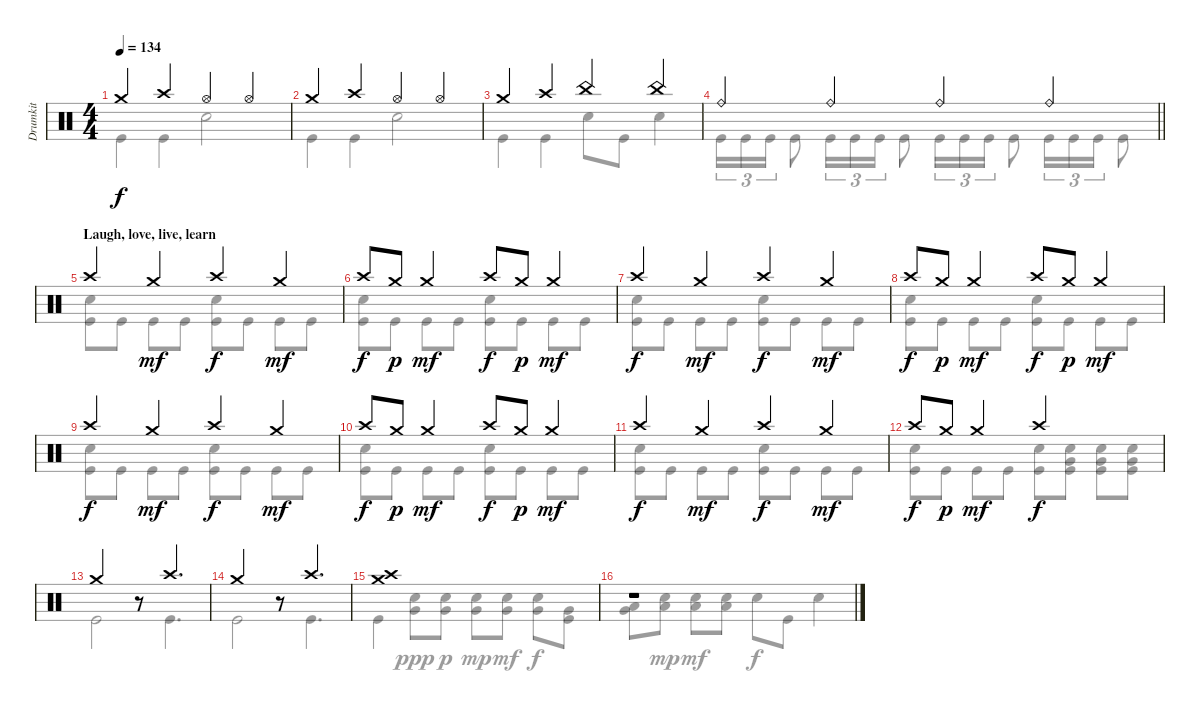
\track ("Drumkit" "Drumkit") {instrument percussion}
\staff {score}
\articulation defaults
\voice
\ts (4 4)
\tempo 134
\clef neutral
\ks c "Crash medium (hit)".4{dy f} "Crash high (hit)".4 "Hi-Hat (open)".4 "Hi-Hat (open)".4
|
"Crash medium (hit)".4 "Crash high (hit)".4 "Hi-Hat (open)".4 "Hi-Hat (open)".4 |
"Crash medium (hit)".4 "Crash high (hit)".4 "China (hit)".4 "China (hit)".4 |
\barLineRight lightlight "Ride (bell)".4 "Ride (bell)".4 "Ride (bell)".4 "Ride (bell)".4
|
\section ("" "Laugh, love, live, learn")
"Crash high (hit)".4 "Crash medium (hit)".4{dy mf} "Crash high (hit)".4{dy f} "Crash medium (hit)".4{dy mf} |
"Crash high (hit)".8{dy f} "Crash medium (hit)".8{dy p} "Crash medium (hit)".4{dy mf} "Crash high (hit)".8{dy f} "Crash medium (hit)".8{dy p} "Crash medium (hit)".4{dy mf} |
"Crash high (hit)".4{dy f} "Crash medium (hit)".4{dy mf} "Crash high (hit)".4{dy f} "Crash medium (hit)".4{dy mf} |
"Crash high (hit)".8{dy f} "Crash medium (hit)".8{dy p} "Crash medium (hit)".4{dy mf} "Crash high (hit)".8{dy f} "Crash medium (hit)".8{dy p} "Crash medium (hit)".4{dy mf} |
"Crash high (hit)".4{dy f} "Crash medium (hit)".4{dy mf} "Crash high (hit)".4{dy f} "Crash medium (hit)".4{dy mf} |
"Crash high (hit)".8{dy f} "Crash medium (hit)".8{dy p} "Crash medium (hit)".4{dy mf} "Crash high (hit)".8{dy f} "Crash medium (hit)".8{dy p} "Crash medium (hit)".4{dy mf} |
"Crash high (hit)".4{dy f} "Crash medium (hit)".4{dy mf} "Crash high (hit)".4{dy f} "Crash medium (hit)".4{dy mf} |
"Crash high (hit)".8{dy f} "Crash medium (hit)".8{dy p} "Crash medium (hit)".4{dy mf} "Crash high (hit)".2{dy f} |
"Crash medium (hit)".2 r.8 "Crash high (hit)".4{d} |
"Crash medium (hit)".2 r.8 "Crash high (hit)".4{d} |
("Crash medium (hit)" "Crash high (hit)").1 |
r.1
\voice
\clef neutral
\ottava regular
\simile none
\ks c "Kick (hit)".4{dy f} "Kick (hit)".4 "Snare (hit) 2".2
|
"Kick (hit)".4 "Kick (hit)".4 "Snare (hit) 2".2 |
"Kick (hit)".4 "Kick (hit)".4 "Snare (hit) 2".8 "Kick (hit)".8 "Snare (hit) 2".4 |
\barLineRight lightlight "Kick (hit)".16{tu (3 2)} "Kick (hit)".16{tu (3 2)} "Kick (hit)".16{tu (3 2)} "Kick (hit)".8 "Kick (hit)".16{tu (3 2)} "Kick (hit)".16{tu (3 2)} "Kick (hit)".16{tu (3 2)} "Kick (hit)".8 "Kick (hit)".16{tu (3 2)} "Kick (hit)".16{tu (3 2)} "Kick (hit)".16{tu (3 2)} "Kick (hit)".8 "Kick (hit)".16{tu (3 2)} "Kick (hit)".16{tu (3 2)} "Kick (hit)".16{tu (3 2)} "Kick (hit)".8
|
("Snare (hit) 2" "Kick (hit)").8 "Kick (hit)".8 "Kick (hit)".8 "Kick (hit)".8 ("Snare (hit) 2" "Kick (hit)").8 "Kick (hit)".8 "Kick (hit)".8 "Kick (hit)".8 |
("Snare (hit) 2" "Kick (hit)").8 "Kick (hit)".8 "Kick (hit)".8 "Kick (hit)".8 ("Snare (hit) 2" "Kick (hit)").8 "Kick (hit)".8 "Kick (hit)".8 "Kick (hit)".8 |
("Snare (hit) 2" "Kick (hit)").8 "Kick (hit)".8 "Kick (hit)".8 "Kick (hit)".8 ("Snare (hit) 2" "Kick (hit)").8 "Kick (hit)".8 "Kick (hit)".8 "Kick (hit)".8 |
("Snare (hit) 2" "Kick (hit)").8 "Kick (hit)".8 "Kick (hit)".8 "Kick (hit)".8 ("Snare (hit) 2" "Kick (hit)").8 "Kick (hit)".8 "Kick (hit)".8 "Kick (hit)".8 |
("Snare (hit) 2" "Kick (hit)").8 "Kick (hit)".8 "Kick (hit)".8 "Kick (hit)".8 ("Snare (hit) 2" "Kick (hit)").8 "Kick (hit)".8 "Kick (hit)".8 "Kick (hit)".8 |
("Snare (hit) 2" "Kick (hit)").8 "Kick (hit)".8 "Kick (hit)".8 "Kick (hit)".8 ("Snare (hit) 2" "Kick (hit)").8 "Kick (hit)".8 "Kick (hit)".8 "Kick (hit)".8 |
("Snare (hit) 2" "Kick (hit)").8 "Kick (hit)".8 "Kick (hit)".8 "Kick (hit)".8 ("Snare (hit) 2" "Kick (hit)").8 "Kick (hit)".8 "Kick (hit)".8 "Kick (hit)".8 |
("Snare (hit) 2" "Kick (hit)").8 "Kick (hit)".8 "Kick (hit)".8 "Kick (hit)".8 ("Snare (hit) 2" "Kick (hit)").8 ("Snare (hit) 2" "Very Low Tom (hit)" "Kick (hit)").8 ("Snare (hit) 2" "Very Low Tom (hit)" "Kick (hit)").8 ("Snare (hit) 2" "Very Low Tom (hit)" "Kick (hit)").8 |
"Kick (hit)".2 r.8 "Kick (hit)".4{d} |
"Kick (hit)".2 r.8 "Kick (hit)".4{d} |
"Kick (hit)".4 ("Snare (hit) 2" "Very Low Tom (hit)").8{dy ppp} ("Snare (hit) 2" "Very Low Tom (hit)").8{dy p} ("Snare (hit) 2" "Very Low Tom (hit)").8{dy mp} ("Snare (hit) 2" "Very Low Tom (hit)").8{dy mf} ("Snare (hit) 2" "Very Low Tom (hit)").8{dy f} ("Very Low Tom (hit)" "Kick (hit)").8 |
("Very Low Tom (hit)" "Low Floor Tom (hit)").8 ("Snare (hit) 2" "Low Floor Tom (hit)").8{dy mp} ("Snare (hit) 2" "Low Floor Tom (hit)").8{dy mf} ("Snare (hit) 2" "Low Floor Tom (hit)").8 "Snare (hit) 2".8{dy f} "Kick (hit)".8 "Snare (hit) 2".4
